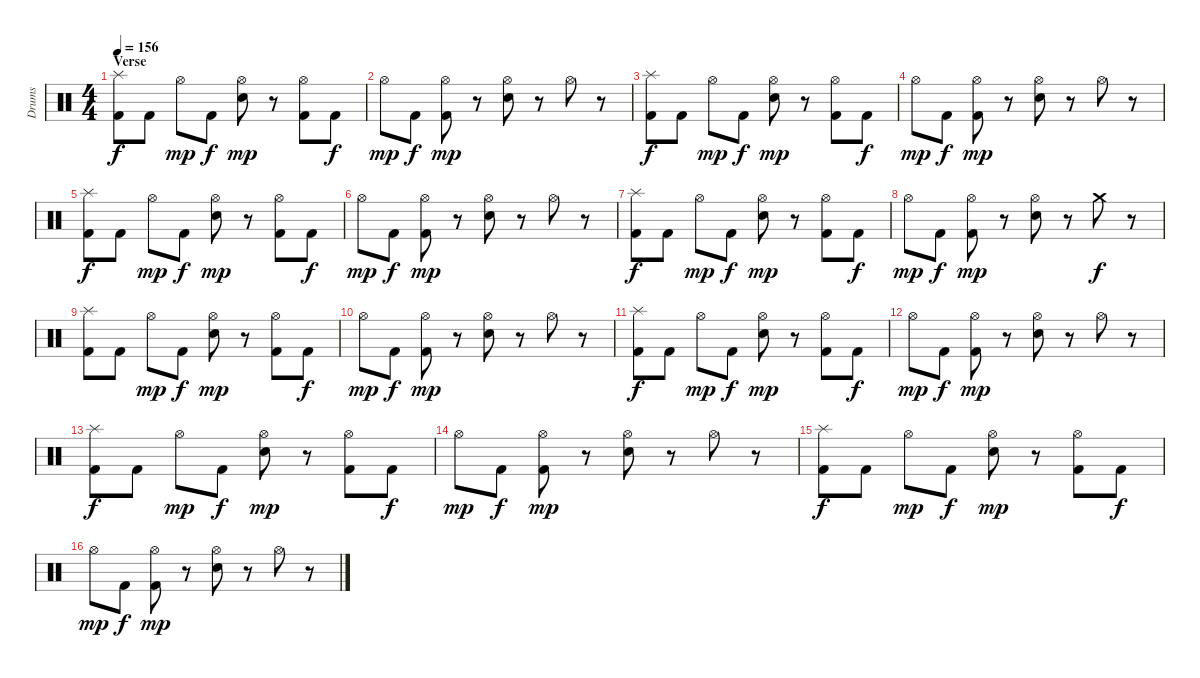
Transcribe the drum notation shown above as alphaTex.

\track ("Drums" "Drums") {instrument percussion}
\staff {score}
\articulation defaults
\ts (4 4)
\section ("" "Verse")
\tempo 156
\clef neutral
\ks c
("Kick (hit) 2" "Splash (hit)").8{dy f} "Kick (hit) 2".8 "Hi-Hat (open)".8{dy mp} "Kick (hit) 2".8{dy f} ("Snare (hit) 2" "Hi-Hat (open)").8{dy mp} r.8 ("Kick (hit) 2" "Hi-Hat (open)").8 "Kick (hit) 2".8{dy f} |
"Hi-Hat (open)".8{dy mp} "Kick (hit) 2".8{dy f} ("Kick (hit) 2" "Hi-Hat (open)").8{dy mp} r.8 ("Snare (hit) 2" "Hi-Hat (open)").8 r.8 "Hi-Hat (open)".8 r.8 |
("Kick (hit) 2" "Splash (hit)").8{dy f} "Kick (hit) 2".8 "Hi-Hat (open)".8{dy mp} "Kick (hit) 2".8{dy f} ("Snare (hit) 2" "Hi-Hat (open)").8{dy mp} r.8 ("Kick (hit) 2" "Hi-Hat (open)").8 "Kick (hit) 2".8{dy f} |
"Hi-Hat (open)".8{dy mp} "Kick (hit) 2".8{dy f} ("Kick (hit) 2" "Hi-Hat (open)").8{dy mp} r.8 ("Snare (hit) 2" "Hi-Hat (open)").8 r.8 "Hi-Hat (open)".8 r.8 |
("Kick (hit) 2" "Splash (hit)").8{dy f} "Kick (hit) 2".8 "Hi-Hat (open)".8{dy mp} "Kick (hit) 2".8{dy f} ("Snare (hit) 2" "Hi-Hat (open)").8{dy mp} r.8 ("Kick (hit) 2" "Hi-Hat (open)").8 "Kick (hit) 2".8{dy f} |
"Hi-Hat (open)".8{dy mp} "Kick (hit) 2".8{dy f} ("Kick (hit) 2" "Hi-Hat (open)").8{dy mp} r.8 ("Snare (hit) 2" "Hi-Hat (open)").8 r.8 "Hi-Hat (open)".8 r.8 |
("Kick (hit) 2" "Splash (hit)").8{dy f} "Kick (hit) 2".8 "Hi-Hat (open)".8{dy mp} "Kick (hit) 2".8{dy f} ("Snare (hit) 2" "Hi-Hat (open)").8{dy mp} r.8 ("Kick (hit) 2" "Hi-Hat (open)").8 "Kick (hit) 2".8{dy f} |
"Hi-Hat (open)".8{dy mp} "Kick (hit) 2".8{dy f} ("Kick (hit) 2" "Hi-Hat (open)").8{dy mp} r.8 ("Snare (hit) 2" "Hi-Hat (open)").8 r.8 "Crash medium (hit)".8{dy f} r.8 |
("Kick (hit) 2" "Splash (hit)").8 "Kick (hit) 2".8 "Hi-Hat (open)".8{dy mp} "Kick (hit) 2".8{dy f} ("Snare (hit) 2" "Hi-Hat (open)").8{dy mp} r.8 ("Kick (hit) 2" "Hi-Hat (open)").8 "Kick (hit) 2".8{dy f} |
"Hi-Hat (open)".8{dy mp} "Kick (hit) 2".8{dy f} ("Kick (hit) 2" "Hi-Hat (open)").8{dy mp} r.8 ("Snare (hit) 2" "Hi-Hat (open)").8 r.8 "Hi-Hat (open)".8 r.8 |
("Kick (hit) 2" "Splash (hit)").8{dy f} "Kick (hit) 2".8 "Hi-Hat (open)".8{dy mp} "Kick (hit) 2".8{dy f} ("Snare (hit) 2" "Hi-Hat (open)").8{dy mp} r.8 ("Kick (hit) 2" "Hi-Hat (open)").8 "Kick (hit) 2".8{dy f} |
"Hi-Hat (open)".8{dy mp} "Kick (hit) 2".8{dy f} ("Kick (hit) 2" "Hi-Hat (open)").8{dy mp} r.8 ("Snare (hit) 2" "Hi-Hat (open)").8 r.8 "Hi-Hat (open)".8 r.8 |
("Kick (hit) 2" "Splash (hit)").8{dy f} "Kick (hit) 2".8 "Hi-Hat (open)".8{dy mp} "Kick (hit) 2".8{dy f} ("Snare (hit) 2" "Hi-Hat (open)").8{dy mp} r.8 ("Kick (hit) 2" "Hi-Hat (open)").8 "Kick (hit) 2".8{dy f} |
"Hi-Hat (open)".8{dy mp} "Kick (hit) 2".8{dy f} ("Kick (hit) 2" "Hi-Hat (open)").8{dy mp} r.8 ("Snare (hit) 2" "Hi-Hat (open)").8 r.8 "Hi-Hat (open)".8 r.8 |
("Kick (hit) 2" "Splash (hit)").8{dy f} "Kick (hit) 2".8 "Hi-Hat (open)".8{dy mp} "Kick (hit) 2".8{dy f} ("Snare (hit) 2" "Hi-Hat (open)").8{dy mp} r.8 ("Kick (hit) 2" "Hi-Hat (open)").8 "Kick (hit) 2".8{dy f} |
"Hi-Hat (open)".8{dy mp} "Kick (hit) 2".8{dy f} ("Kick (hit) 2" "Hi-Hat (open)").8{dy mp} r.8 ("Snare (hit) 2" "Hi-Hat (open)").8 r.8 "Hi-Hat (open)".8 r.8
